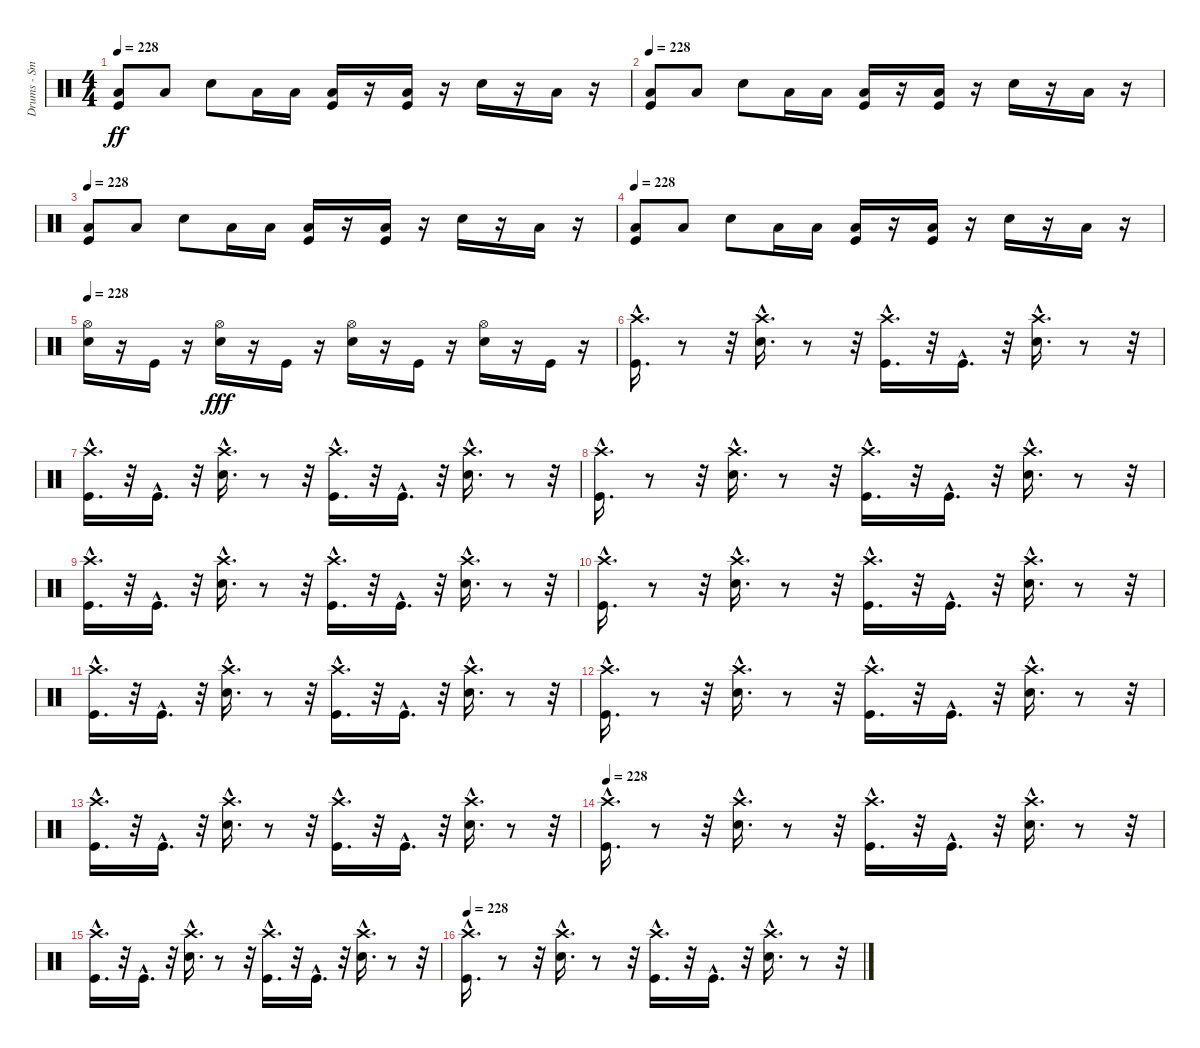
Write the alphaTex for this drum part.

\track ("Drums - Smelly" "Drums - Sm") {instrument percussion}
\staff {score}
\articulation defaults
\ts (4 4)
\tempo 228
\clef neutral
\ks c
("Kick (hit)" "Low Floor Tom (hit)").8{dy ff} "Low Floor Tom (hit)".8 "Electric Snare (hit)".8 "Low Tom (hit)".16 "Low Tom (hit)".16 ("Kick (hit)" "Low Floor Tom (hit)").16 r.16 ("Kick (hit)" "Low Floor Tom (hit)").16 r.16 "Electric Snare (hit)".16 r.16 "Low Tom (hit)".16 r.16 |
\tempo 228
("Kick (hit)" "Low Floor Tom (hit)").8 "Low Floor Tom (hit)".8 "Electric Snare (hit)".8 "Low Tom (hit)".16 "Low Tom (hit)".16 ("Kick (hit)" "Low Floor Tom (hit)").16 r.16 ("Low Floor Tom (hit)" "Kick (hit)").16 r.16 "Electric Snare (hit)".16 r.16 "Low Tom (hit)".16 r.16 |
\tempo 228
("Kick (hit)" "Low Floor Tom (hit)").8 "Low Floor Tom (hit)".8 "Electric Snare (hit)".8 "Low Tom (hit)".16 "Low Tom (hit)".16 ("Kick (hit)" "Low Floor Tom (hit)").16 r.16 ("Low Floor Tom (hit)" "Kick (hit)").16 r.16 "Electric Snare (hit)".16 r.16 "Low Tom (hit)".16 r.16 |
\tempo 228
("Kick (hit)" "Low Floor Tom (hit)").8 "Low Floor Tom (hit)".8 "Electric Snare (hit)".8 "Low Tom (hit)".16 "Low Tom (hit)".16 ("Low Floor Tom (hit)" "Kick (hit)").16 r.16 ("Kick (hit)" "Low Floor Tom (hit)").16 r.16 "Electric Snare (hit)".16 r.16 "Low Tom (hit)".16 r.16 |
\tempo 228
("Electric Snare (hit)" "Hi-Hat (open)").16 r.16 "Kick (hit)".16 r.16 ("Electric Snare (hit)" "Hi-Hat (open)").16{dy fff} r.16 "Kick (hit)".16 r.16 ("Electric Snare (hit)" "Hi-Hat (open)").16 r.16 "Kick (hit)".16 r.16 ("Electric Snare (hit)" "Hi-Hat (open)").16 r.16 "Kick (hit)".16 r.16 |
("Kick (hit)"{hac} "Crash high (hit)"{hac}).16{d} r.8 r.32 ("Crash high (hit)"{hac} "Electric Snare (hit)"{hac}).16{d} r.8 r.32 ("Crash high (hit)"{hac} "Kick (hit)"{hac}).16{d} r.32 "Kick (hit)"{hac}.16{d} r.32 ("Electric Snare (hit)"{hac} "Crash high (hit)"{hac}).16{d} r.8 r.32 |
("Crash high (hit)"{hac} "Kick (hit)"{hac}).16{d} r.32 "Kick (hit)"{hac}.16{d} r.32 ("Crash high (hit)"{hac} "Electric Snare (hit)"{hac}).16{d} r.8 r.32 ("Crash high (hit)"{hac} "Kick (hit)"{hac}).16{d} r.32 "Kick (hit)"{hac}.16{d} r.32 ("Crash high (hit)"{hac} "Electric Snare (hit)"{hac}).16{d} r.8 r.32 |
("Kick (hit)"{hac} "Crash high (hit)"{hac}).16{d} r.8 r.32 ("Crash high (hit)"{hac} "Electric Snare (hit)"{hac}).16{d} r.8 r.32 ("Crash high (hit)"{hac} "Kick (hit)"{hac}).16{d} r.32 "Kick (hit)"{hac}.16{d} r.32 ("Crash high (hit)"{hac} "Electric Snare (hit)"{hac}).16{d} r.8 r.32 |
("Kick (hit)"{hac} "Crash high (hit)"{hac}).16{d} r.32 "Kick (hit)"{hac}.16{d} r.32 ("Electric Snare (hit)"{hac} "Crash high (hit)"{hac}).16{d} r.8 r.32 ("Crash high (hit)"{hac} "Kick (hit)"{hac}).16{d} r.32 "Kick (hit)"{hac}.16{d} r.32 ("Crash high (hit)"{hac} "Electric Snare (hit)"{hac}).16{d} r.8 r.32 |
("Kick (hit)"{hac} "Crash high (hit)"{hac}).16{d} r.8 r.32 ("Crash high (hit)"{hac} "Electric Snare (hit)"{hac}).16{d} r.8 r.32 ("Crash high (hit)"{hac} "Kick (hit)"{hac}).16{d} r.32 "Kick (hit)"{hac}.16{d} r.32 ("Crash high (hit)"{hac} "Electric Snare (hit)"{hac}).16{d} r.8 r.32 |
("Kick (hit)"{hac} "Crash high (hit)"{hac}).16{d} r.32 "Kick (hit)"{hac}.16{d} r.32 ("Electric Snare (hit)"{hac} "Crash high (hit)"{hac}).16{d} r.8 r.32 ("Crash high (hit)"{hac} "Kick (hit)"{hac}).16{d} r.32 "Kick (hit)"{hac}.16{d} r.32 ("Electric Snare (hit)"{hac} "Crash high (hit)"{hac}).16{d} r.8 r.32 |
("Kick (hit)"{hac} "Crash high (hit)"{hac}).16{d} r.8 r.32 ("Crash high (hit)"{hac} "Electric Snare (hit)"{hac}).16{d} r.8 r.32 ("Crash high (hit)"{hac} "Kick (hit)"{hac}).16{d} r.32 "Kick (hit)"{hac}.16{d} r.32 ("Crash high (hit)"{hac} "Electric Snare (hit)"{hac}).16{d} r.8 r.32 |
("Kick (hit)"{hac} "Crash high (hit)"{hac}).16{d} r.32 "Kick (hit)"{hac}.16{d} r.32 ("Electric Snare (hit)"{hac} "Crash high (hit)"{hac}).16{d} r.8 r.32 ("Crash high (hit)"{hac} "Kick (hit)"{hac}).16{d} r.32 "Kick (hit)"{hac}.16{d} r.32 ("Crash high (hit)"{hac} "Electric Snare (hit)"{hac}).16{d} r.8 r.32 |
\tempo 228
("Crash high (hit)"{hac} "Kick (hit)"{hac}).16{d} r.8 r.32 ("Electric Snare (hit)"{hac} "Crash high (hit)"{hac}).16{d} r.8 r.32 ("Kick (hit)"{hac} "Crash high (hit)"{hac}).16{d} r.32 "Kick (hit)"{hac}.16{d} r.32 ("Crash high (hit)"{hac} "Electric Snare (hit)"{hac}).16{d} r.8 r.32 |
("Kick (hit)"{hac} "Crash high (hit)"{hac}).16{d} r.32 "Kick (hit)"{hac}.16{d} r.32 ("Electric Snare (hit)"{hac} "Crash high (hit)"{hac}).16{d} r.8 r.32 ("Crash high (hit)"{hac} "Kick (hit)"{hac}).16{d} r.32 "Kick (hit)"{hac}.16{d} r.32 ("Crash high (hit)"{hac} "Electric Snare (hit)"{hac}).16{d} r.8 r.32 |
\tempo 228
("Crash high (hit)"{hac} "Kick (hit)"{hac}).16{d} r.8 r.32 ("Electric Snare (hit)"{hac} "Crash high (hit)"{hac}).16{d} r.8 r.32 ("Crash high (hit)"{hac} "Kick (hit)"{hac}).16{d} r.32 "Kick (hit)"{hac}.16{d} r.32 ("Crash high (hit)"{hac} "Electric Snare (hit)"{hac}).16{d} r.8 r.32
